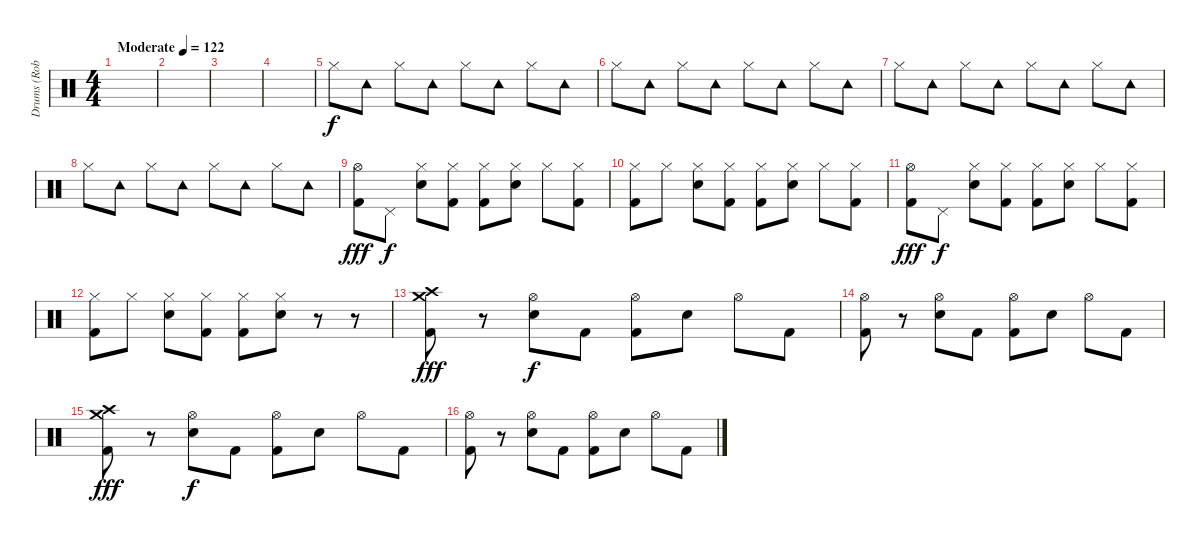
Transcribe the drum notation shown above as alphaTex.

\track ("Drums (Rob Boudron)" "Drums (Rob") {instrument percussion}
\staff {score}
\articulation defaults
\ts (4 4)
\tempo (122 "Moderate")
\clef neutral
\ks c
|
|
|
|
"Hi-Hat (closed)".8 "Tambourine (hit)".8 "Hi-Hat (closed)".8 "Tambourine (hit)".8 "Hi-Hat (closed)".8 "Tambourine (hit)".8 "Hi-Hat (closed)".8 "Tambourine (hit)".8 |
"Hi-Hat (closed)".8 "Tambourine (hit)".8 "Hi-Hat (closed)".8 "Tambourine (hit)".8 "Hi-Hat (closed)".8 "Tambourine (hit)".8 "Hi-Hat (closed)".8 "Tambourine (hit)".8 |
"Hi-Hat (closed)".8 "Tambourine (hit)".8 "Hi-Hat (closed)".8 "Tambourine (hit)".8 "Hi-Hat (closed)".8 "Tambourine (hit)".8 "Hi-Hat (closed)".8 "Tambourine (hit)".8 |
"Hi-Hat (closed)".8 "Tambourine (hit)".8 "Hi-Hat (closed)".8 "Tambourine (hit)".8 "Hi-Hat (closed)".8 "Tambourine (hit)".8 "Hi-Hat (closed)".8 "Tambourine (hit)".8 |
("Hi-Hat (open)" "Kick (hit) 2").8{dy fff} "Pedal Hi-Hat (hit)".8{dy f} ("Hi-Hat (closed)" "Electric Snare (hit)").8 ("Hi-Hat (closed)" "Kick (hit) 2").8 ("Hi-Hat (closed)" "Kick (hit) 2").8 ("Hi-Hat (closed)" "Electric Snare (hit)").8 "Hi-Hat (closed)".8 ("Hi-Hat (closed)" "Kick (hit) 2").8 |
("Hi-Hat (closed)" "Kick (hit) 2").8 "Hi-Hat (closed)".8 ("Hi-Hat (closed)" "Electric Snare (hit)").8 ("Hi-Hat (closed)" "Kick (hit) 2").8 ("Hi-Hat (closed)" "Kick (hit) 2").8 ("Hi-Hat (closed)" "Electric Snare (hit)").8 "Hi-Hat (closed)".8 ("Hi-Hat (closed)" "Kick (hit) 2").8 |
("Hi-Hat (open)" "Kick (hit) 2").8{dy fff} "Pedal Hi-Hat (hit)".8{dy f} ("Hi-Hat (closed)" "Electric Snare (hit)").8 ("Hi-Hat (closed)" "Kick (hit) 2").8 ("Hi-Hat (closed)" "Kick (hit) 2").8 ("Hi-Hat (closed)" "Electric Snare (hit)").8 "Hi-Hat (closed)".8 ("Hi-Hat (closed)" "Kick (hit) 2").8 |
("Hi-Hat (closed)" "Kick (hit) 2").8 "Hi-Hat (closed)".8 ("Hi-Hat (closed)" "Electric Snare (hit)").8 ("Hi-Hat (closed)" "Kick (hit) 2").8 ("Hi-Hat (closed)" "Kick (hit) 2").8 ("Hi-Hat (closed)" "Electric Snare (hit)").8 r.8 r.8 |
("Crash medium (hit)" "Crash high (hit)" "Kick (hit) 2").8{dy fff} r.8 ("Hi-Hat (open)" "Electric Snare (hit)").8{dy f} "Kick (hit) 2".8 ("Hi-Hat (open)" "Kick (hit) 2").8 "Electric Snare (hit)".8 "Hi-Hat (open)".8 "Kick (hit) 2".8 |
("Hi-Hat (open)" "Kick (hit) 2").8 r.8 ("Hi-Hat (open)" "Electric Snare (hit)").8 "Kick (hit) 2".8 ("Hi-Hat (open)" "Kick (hit) 2").8 "Electric Snare (hit)".8 "Hi-Hat (open)".8 "Kick (hit) 2".8 |
("Crash medium (hit)" "Crash high (hit)" "Kick (hit) 2").8{dy fff} r.8 ("Hi-Hat (open)" "Electric Snare (hit)").8{dy f} "Kick (hit) 2".8 ("Hi-Hat (open)" "Kick (hit) 2").8 "Electric Snare (hit)".8 "Hi-Hat (open)".8 "Kick (hit) 2".8 |
("Hi-Hat (open)" "Kick (hit) 2").8 r.8 ("Hi-Hat (open)" "Electric Snare (hit)").8 "Kick (hit) 2".8 ("Hi-Hat (open)" "Kick (hit) 2").8 "Electric Snare (hit)".8 "Hi-Hat (open)".8 "Kick (hit) 2".8
